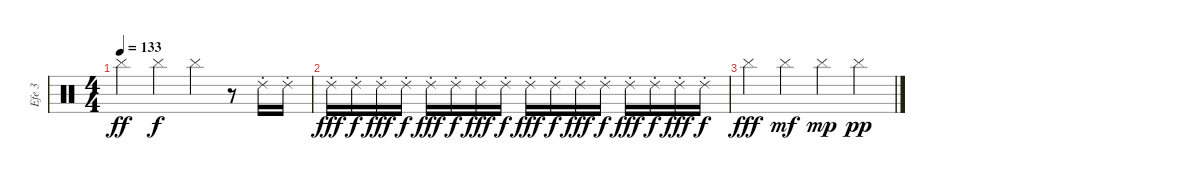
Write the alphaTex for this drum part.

\track ("Efe 3" "Efe 3") {instrument percussion}
\staff {score}
\articulation defaults
\ts (4 4)
\tempo 133
\clef neutral
\ks c "Cymbal (hit)".4{dy ff} "Cymbal (hit)".4{dy f} "Cymbal (hit)".4
r.8 "Ride (choke) 2".16 "Ride (choke) 2".16 |
"Ride (choke) 2".16{dy fff} "Ride (choke) 2".16{dy f} "Ride (choke) 2".16{dy fff} "Ride (choke) 2".16{dy f} "Ride (choke) 2".16{dy fff} "Ride (choke) 2".16{dy f} "Ride (choke) 2".16{dy fff} "Ride (choke) 2".16{dy f} "Ride (choke) 2".16{dy fff} "Ride (choke) 2".16{dy f} "Ride (choke) 2".16{dy fff} "Ride (choke) 2".16{dy f} "Ride (choke) 2".16{dy fff} "Ride (choke) 2".16{dy f} "Ride (choke) 2".16{dy fff} "Ride (choke) 2".16{dy f} |
"Cymbal (hit)".4{dy fff} "Cymbal (hit)".4{dy mf} "Cymbal (hit)".4{dy mp} "Cymbal (hit)".4{dy pp}
